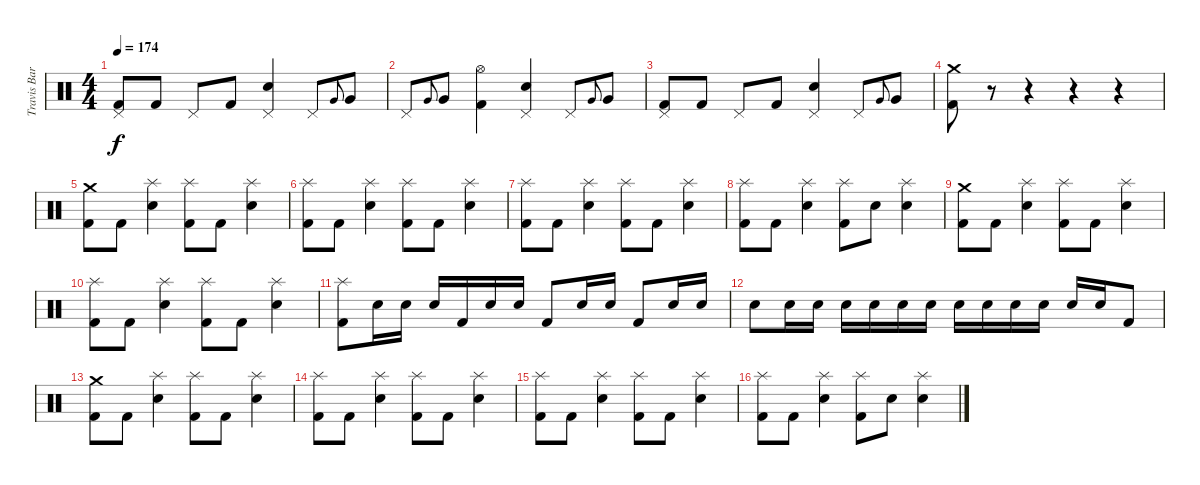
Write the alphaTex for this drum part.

\track ("Travis Barker - Drums" "Travis Bar") {instrument percussion}
\staff {score}
\articulation defaults
\ts (4 4)
\tempo 174
\clef neutral
\ks c
("Pedal Hi-Hat (hit)" "Kick (hit) 2").8{dy f} "Kick (hit) 2".8 "Pedal Hi-Hat (hit)".8 "Kick (hit) 2".8 ("Pedal Hi-Hat (hit)" "Electric Snare (hit)").4 "Pedal Hi-Hat (hit)".8 "Very Low Tom (hit)".8{gr onbeat} "Very Low Tom (hit)".8 |
"Pedal Hi-Hat (hit)".8 "Very Low Tom (hit)".8{gr onbeat} "Very Low Tom (hit)".8 ("Hi-Hat (open)" "Kick (hit) 2").4 ("Pedal Hi-Hat (hit)" "Electric Snare (hit)").4 "Pedal Hi-Hat (hit)".8 "Very Low Tom (hit)".8{gr onbeat} "Very Low Tom (hit)".8 |
("Pedal Hi-Hat (hit)" "Kick (hit) 2").8 "Kick (hit) 2".8 "Pedal Hi-Hat (hit)".8 "Kick (hit) 2".8 ("Pedal Hi-Hat (hit)" "Electric Snare (hit)").4 "Pedal Hi-Hat (hit)".8 "Very Low Tom (hit)".8{gr onbeat} "Very Low Tom (hit)".8 |
("Crash medium (hit)" "Kick (hit) 2").8 r.8 r.4 r.4 r.4 |
("Crash medium (hit)" "Kick (hit) 2").8 "Kick (hit) 2".8 ("Splash (hit)" "Electric Snare (hit)").4 ("Splash (hit)" "Kick (hit) 2").8 "Kick (hit) 2".8 ("Splash (hit)" "Electric Snare (hit)").4 |
("Splash (hit)" "Kick (hit) 2").8 "Kick (hit) 2".8 ("Splash (hit)" "Electric Snare (hit)").4 ("Splash (hit)" "Kick (hit) 2").8 "Kick (hit) 2".8 ("Splash (hit)" "Electric Snare (hit)").4 |
("Splash (hit)" "Kick (hit) 2").8 "Kick (hit) 2".8 ("Splash (hit)" "Electric Snare (hit)").4 ("Splash (hit)" "Kick (hit) 2").8 "Kick (hit) 2".8 ("Splash (hit)" "Electric Snare (hit)").4 |
("Splash (hit)" "Kick (hit) 2").8 "Kick (hit) 2".8 ("Splash (hit)" "Electric Snare (hit)").4 ("Splash (hit)" "Kick (hit) 2").8 "Electric Snare (hit)".8 ("Splash (hit)" "Electric Snare (hit)").4 |
("Crash medium (hit)" "Kick (hit) 2").8 "Kick (hit) 2".8 ("Splash (hit)" "Electric Snare (hit)").4 ("Splash (hit)" "Kick (hit) 2").8 "Kick (hit) 2".8 ("Splash (hit)" "Electric Snare (hit)").4 |
("Splash (hit)" "Kick (hit) 2").8 "Kick (hit) 2".8 ("Splash (hit)" "Electric Snare (hit)").4 ("Splash (hit)" "Kick (hit) 2").8 "Kick (hit) 2".8 ("Splash (hit)" "Electric Snare (hit)").4 |
("Splash (hit)" "Kick (hit) 2").8 "Electric Snare (hit)".16 "Electric Snare (hit)".16 "Electric Snare (hit)".16 "Kick (hit) 2".16 "Electric Snare (hit)".16 "Electric Snare (hit)".16 "Kick (hit) 2".8 "Electric Snare (hit)".16 "Electric Snare (hit)".16 "Kick (hit) 2".8 "Electric Snare (hit)".16 "Electric Snare (hit)".16 |
"Electric Snare (hit)".8 "Electric Snare (hit)".16 "Electric Snare (hit)".16 "Electric Snare (hit)".16 "Electric Snare (hit)".16 "Electric Snare (hit)".16 "Electric Snare (hit)".16 "Electric Snare (hit)".16 "Electric Snare (hit)".16 "Electric Snare (hit)".16 "Electric Snare (hit)".16 "Electric Snare (hit)".16 "Electric Snare (hit)".16 "Kick (hit) 2".8 |
("Crash medium (hit)" "Kick (hit) 2").8 "Kick (hit) 2".8 ("Splash (hit)" "Electric Snare (hit)").4 ("Splash (hit)" "Kick (hit) 2").8 "Kick (hit) 2".8 ("Splash (hit)" "Electric Snare (hit)").4 |
("Splash (hit)" "Kick (hit) 2").8 "Kick (hit) 2".8 ("Splash (hit)" "Electric Snare (hit)").4 ("Splash (hit)" "Kick (hit) 2").8 "Kick (hit) 2".8 ("Splash (hit)" "Electric Snare (hit)").4 |
("Splash (hit)" "Kick (hit) 2").8 "Kick (hit) 2".8 ("Splash (hit)" "Electric Snare (hit)").4 ("Splash (hit)" "Kick (hit) 2").8 "Kick (hit) 2".8 ("Splash (hit)" "Electric Snare (hit)").4 |
("Splash (hit)" "Kick (hit) 2").8 "Kick (hit) 2".8 ("Splash (hit)" "Electric Snare (hit)").4 ("Splash (hit)" "Kick (hit) 2").8 "Electric Snare (hit)".8 ("Splash (hit)" "Electric Snare (hit)").4
